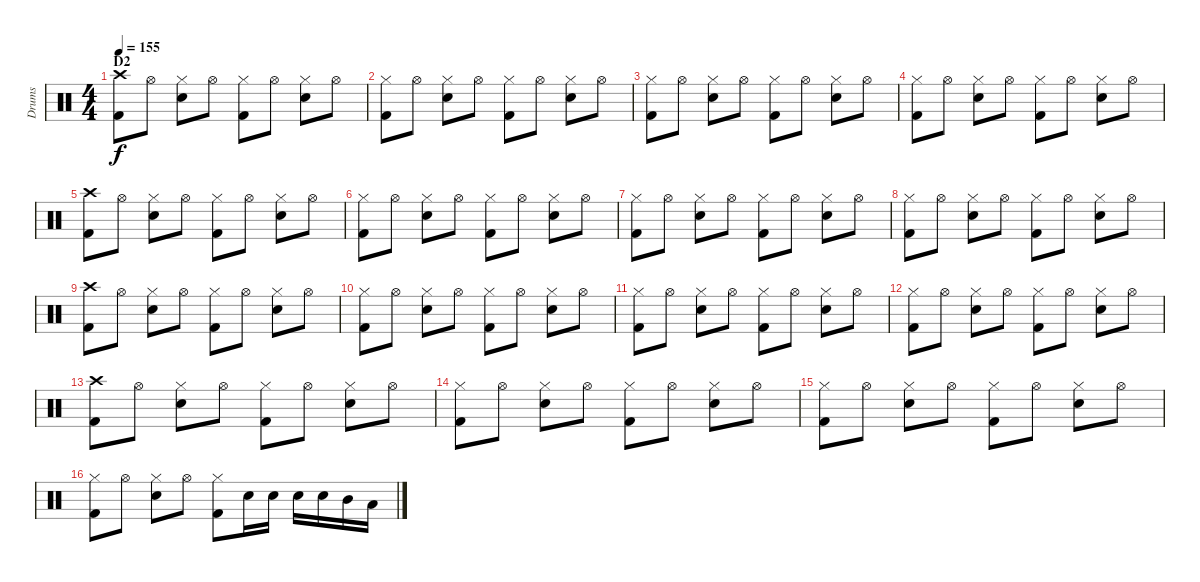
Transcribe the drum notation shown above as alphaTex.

\track ("Drums" "Drums") {instrument percussion}
\staff {score}
\articulation defaults
\ts (4 4)
\section ("" "D2")
\tempo 155
\clef neutral
\ks c
("Crash high (hit)" "Kick (hit) 2").8{dy f} "Hi-Hat (open)".8 ("Hi-Hat (closed)" "Snare (hit) 2").8 "Hi-Hat (open)".8 ("Hi-Hat (closed)" "Kick (hit) 2").8 "Hi-Hat (open)".8 ("Hi-Hat (closed)" "Snare (hit) 2").8 "Hi-Hat (open)".8 |
("Hi-Hat (closed)" "Kick (hit) 2").8 "Hi-Hat (open)".8 ("Hi-Hat (closed)" "Snare (hit) 2").8 "Hi-Hat (open)".8 ("Hi-Hat (closed)" "Kick (hit) 2").8 "Hi-Hat (open)".8 ("Hi-Hat (closed)" "Snare (hit) 2").8 "Hi-Hat (open)".8 |
("Hi-Hat (closed)" "Kick (hit) 2").8 "Hi-Hat (open)".8 ("Hi-Hat (closed)" "Snare (hit) 2").8 "Hi-Hat (open)".8 ("Hi-Hat (closed)" "Kick (hit) 2").8 "Hi-Hat (open)".8 ("Hi-Hat (closed)" "Snare (hit) 2").8 "Hi-Hat (open)".8 |
("Hi-Hat (closed)" "Kick (hit) 2").8 "Hi-Hat (open)".8 ("Hi-Hat (closed)" "Snare (hit) 2").8 "Hi-Hat (open)".8 ("Hi-Hat (closed)" "Kick (hit) 2").8 "Hi-Hat (open)".8 ("Hi-Hat (closed)" "Snare (hit) 2").8 "Hi-Hat (open)".8 |
("Crash high (hit)" "Kick (hit) 2").8 "Hi-Hat (open)".8 ("Hi-Hat (closed)" "Snare (hit) 2").8 "Hi-Hat (open)".8 ("Hi-Hat (closed)" "Kick (hit) 2").8 "Hi-Hat (open)".8 ("Hi-Hat (closed)" "Snare (hit) 2").8 "Hi-Hat (open)".8 |
("Hi-Hat (closed)" "Kick (hit) 2").8 "Hi-Hat (open)".8 ("Hi-Hat (closed)" "Snare (hit) 2").8 "Hi-Hat (open)".8 ("Hi-Hat (closed)" "Kick (hit) 2").8 "Hi-Hat (open)".8 ("Hi-Hat (closed)" "Snare (hit) 2").8 "Hi-Hat (open)".8 |
("Hi-Hat (closed)" "Kick (hit) 2").8 "Hi-Hat (open)".8 ("Hi-Hat (closed)" "Snare (hit) 2").8 "Hi-Hat (open)".8 ("Hi-Hat (closed)" "Kick (hit) 2").8 "Hi-Hat (open)".8 ("Hi-Hat (closed)" "Snare (hit) 2").8 "Hi-Hat (open)".8 |
("Hi-Hat (closed)" "Kick (hit) 2").8 "Hi-Hat (open)".8 ("Hi-Hat (closed)" "Snare (hit) 2").8 "Hi-Hat (open)".8 ("Hi-Hat (closed)" "Kick (hit) 2").8 "Hi-Hat (open)".8 ("Hi-Hat (closed)" "Snare (hit) 2").8 "Hi-Hat (open)".8 |
("Crash high (hit)" "Kick (hit) 2").8 "Hi-Hat (open)".8 ("Hi-Hat (closed)" "Snare (hit) 2").8 "Hi-Hat (open)".8 ("Hi-Hat (closed)" "Kick (hit) 2").8 "Hi-Hat (open)".8 ("Hi-Hat (closed)" "Snare (hit) 2").8 "Hi-Hat (open)".8 |
("Hi-Hat (closed)" "Kick (hit) 2").8 "Hi-Hat (open)".8 ("Hi-Hat (closed)" "Snare (hit) 2").8 "Hi-Hat (open)".8 ("Hi-Hat (closed)" "Kick (hit) 2").8 "Hi-Hat (open)".8 ("Hi-Hat (closed)" "Snare (hit) 2").8 "Hi-Hat (open)".8 |
("Hi-Hat (closed)" "Kick (hit) 2").8 "Hi-Hat (open)".8 ("Hi-Hat (closed)" "Snare (hit) 2").8 "Hi-Hat (open)".8 ("Hi-Hat (closed)" "Kick (hit) 2").8 "Hi-Hat (open)".8 ("Hi-Hat (closed)" "Snare (hit) 2").8 "Hi-Hat (open)".8 |
("Hi-Hat (closed)" "Kick (hit) 2").8 "Hi-Hat (open)".8 ("Hi-Hat (closed)" "Snare (hit) 2").8 "Hi-Hat (open)".8 ("Hi-Hat (closed)" "Kick (hit) 2").8 "Hi-Hat (open)".8 ("Hi-Hat (closed)" "Snare (hit) 2").8 "Hi-Hat (open)".8 |
("Crash high (hit)" "Kick (hit) 2").8 "Hi-Hat (open)".8 ("Hi-Hat (closed)" "Snare (hit) 2").8 "Hi-Hat (open)".8 ("Hi-Hat (closed)" "Kick (hit) 2").8 "Hi-Hat (open)".8 ("Hi-Hat (closed)" "Snare (hit) 2").8 "Hi-Hat (open)".8 |
("Hi-Hat (closed)" "Kick (hit) 2").8 "Hi-Hat (open)".8 ("Hi-Hat (closed)" "Snare (hit) 2").8 "Hi-Hat (open)".8 ("Hi-Hat (closed)" "Kick (hit) 2").8 "Hi-Hat (open)".8 ("Hi-Hat (closed)" "Snare (hit) 2").8 "Hi-Hat (open)".8 |
("Hi-Hat (closed)" "Kick (hit) 2").8 "Hi-Hat (open)".8 ("Hi-Hat (closed)" "Snare (hit) 2").8 "Hi-Hat (open)".8 ("Hi-Hat (closed)" "Kick (hit) 2").8 "Hi-Hat (open)".8 ("Hi-Hat (closed)" "Snare (hit) 2").8 "Hi-Hat (open)".8 |
("Hi-Hat (closed)" "Kick (hit) 2").8 "Hi-Hat (open)".8 ("Hi-Hat (closed)" "Snare (hit) 2").8 "Hi-Hat (open)".8 ("Hi-Hat (closed)" "Kick (hit) 2").8 "Snare (hit) 2".16 "Snare (hit) 2".16 "Snare (hit) 2".16 "Snare (hit) 2".16 "Mid Tom (hit)".16 "Low Tom (hit)".16
